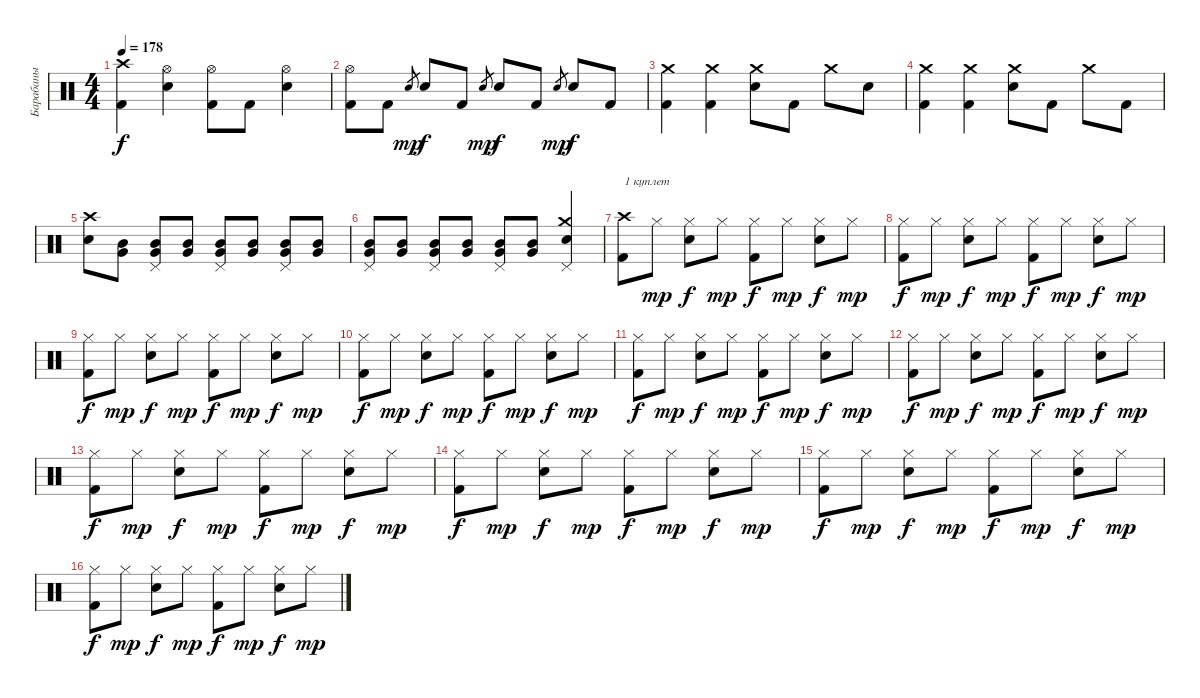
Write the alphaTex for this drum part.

\track ("Барабаны" "Барабаны") {instrument percussion}
\staff {score}
\articulation defaults
\ts (4 4)
\tempo 178
\clef neutral
\ks c
("Crash high (hit)" "Kick (hit) 2").4{dy f} ("Hi-Hat (open)" "Electric Snare (hit)").4 ("Hi-Hat (open)" "Kick (hit) 2").8 "Kick (hit) 2".8 ("Hi-Hat (open)" "Electric Snare (hit)").4 |
("Hi-Hat (open)" "Kick (hit) 2").8 "Kick (hit) 2".8 "Electric Snare (hit)".8{gr dy mp} "Electric Snare (hit)".8{dy f} "Kick (hit) 2".8 "Electric Snare (hit)".8{gr dy mp} "Electric Snare (hit)".8{dy f} "Kick (hit) 2".8 "Electric Snare (hit)".8{gr dy mp} "Electric Snare (hit)".8{dy f} "Kick (hit) 2".8 |
("Crash medium (hit)" "Kick (hit) 2").4 ("Crash medium (hit)" "Kick (hit) 2").4 ("Crash medium (hit)" "Electric Snare (hit)").8 "Kick (hit) 2".8 "Crash medium (hit)".8 "Electric Snare (hit)".8 |
("Crash medium (hit)" "Kick (hit) 2").4 ("Crash medium (hit)" "Kick (hit) 2").4 ("Crash medium (hit)" "Electric Snare (hit)").8 "Kick (hit) 2".8 "Crash medium (hit)".8 "Kick (hit) 2".8 |
("Crash high (hit)" "Electric Snare (hit)").8 ("Mid Tom (hit)" "Very Low Tom (hit)").8 ("Pedal Hi-Hat (hit)" "Mid Tom (hit)" "Very Low Tom (hit)").8 ("Mid Tom (hit)" "Very Low Tom (hit)").8 ("Pedal Hi-Hat (hit)" "Mid Tom (hit)" "Very Low Tom (hit)").8 ("Mid Tom (hit)" "Very Low Tom (hit)").8 ("Pedal Hi-Hat (hit)" "Mid Tom (hit)" "Very Low Tom (hit)").8 ("Mid Tom (hit)" "Very Low Tom (hit)").8 |
("Pedal Hi-Hat (hit)" "Mid Tom (hit)" "Very Low Tom (hit)").8 ("Mid Tom (hit)" "Very Low Tom (hit)").8 ("Pedal Hi-Hat (hit)" "Mid Tom (hit)" "Very Low Tom (hit)").8 ("Mid Tom (hit)" "Very Low Tom (hit)").8 ("Pedal Hi-Hat (hit)" "Mid Tom (hit)" "Very Low Tom (hit)").8 ("Mid Tom (hit)" "Very Low Tom (hit)").8 ("Crash medium (hit)" "Pedal Hi-Hat (hit)" "Electric Snare (hit)").4 |
("Crash high (hit)" "Kick (hit) 2").8{txt "1 куплет"} "Hi-Hat (closed)".8{dy mp} ("Hi-Hat (closed)" "Electric Snare (hit)").8{dy f} "Hi-Hat (closed)".8{dy mp} ("Hi-Hat (closed)" "Kick (hit) 2").8{dy f} "Hi-Hat (closed)".8{dy mp} ("Hi-Hat (closed)" "Electric Snare (hit)").8{dy f} "Hi-Hat (closed)".8{dy mp} |
("Hi-Hat (closed)" "Kick (hit) 2").8{dy f} "Hi-Hat (closed)".8{dy mp} ("Hi-Hat (closed)" "Electric Snare (hit)").8{dy f} "Hi-Hat (closed)".8{dy mp} ("Hi-Hat (closed)" "Kick (hit) 2").8{dy f} "Hi-Hat (closed)".8{dy mp} ("Hi-Hat (closed)" "Electric Snare (hit)").8{dy f} "Hi-Hat (closed)".8{dy mp} |
("Hi-Hat (closed)" "Kick (hit) 2").8{dy f} "Hi-Hat (closed)".8{dy mp} ("Hi-Hat (closed)" "Electric Snare (hit)").8{dy f} "Hi-Hat (closed)".8{dy mp} ("Hi-Hat (closed)" "Kick (hit) 2").8{dy f} "Hi-Hat (closed)".8{dy mp} ("Hi-Hat (closed)" "Electric Snare (hit)").8{dy f} "Hi-Hat (closed)".8{dy mp} |
("Hi-Hat (closed)" "Kick (hit) 2").8{dy f} "Hi-Hat (closed)".8{dy mp} ("Hi-Hat (closed)" "Electric Snare (hit)").8{dy f} "Hi-Hat (closed)".8{dy mp} ("Hi-Hat (closed)" "Kick (hit) 2").8{dy f} "Hi-Hat (closed)".8{dy mp} ("Hi-Hat (closed)" "Electric Snare (hit)").8{dy f} "Hi-Hat (closed)".8{dy mp} |
("Hi-Hat (closed)" "Kick (hit) 2").8{dy f} "Hi-Hat (closed)".8{dy mp} ("Hi-Hat (closed)" "Electric Snare (hit)").8{dy f} "Hi-Hat (closed)".8{dy mp} ("Hi-Hat (closed)" "Kick (hit) 2").8{dy f} "Hi-Hat (closed)".8{dy mp} ("Hi-Hat (closed)" "Electric Snare (hit)").8{dy f} "Hi-Hat (closed)".8{dy mp} |
("Hi-Hat (closed)" "Kick (hit) 2").8{dy f} "Hi-Hat (closed)".8{dy mp} ("Hi-Hat (closed)" "Electric Snare (hit)").8{dy f} "Hi-Hat (closed)".8{dy mp} ("Hi-Hat (closed)" "Kick (hit) 2").8{dy f} "Hi-Hat (closed)".8{dy mp} ("Hi-Hat (closed)" "Electric Snare (hit)").8{dy f} "Hi-Hat (closed)".8{dy mp} |
("Hi-Hat (closed)" "Kick (hit) 2").8{dy f} "Hi-Hat (closed)".8{dy mp} ("Hi-Hat (closed)" "Electric Snare (hit)").8{dy f} "Hi-Hat (closed)".8{dy mp} ("Hi-Hat (closed)" "Kick (hit) 2").8{dy f} "Hi-Hat (closed)".8{dy mp} ("Hi-Hat (closed)" "Electric Snare (hit)").8{dy f} "Hi-Hat (closed)".8{dy mp} |
("Hi-Hat (closed)" "Kick (hit) 2").8{dy f} "Hi-Hat (closed)".8{dy mp} ("Hi-Hat (closed)" "Electric Snare (hit)").8{dy f} "Hi-Hat (closed)".8{dy mp} ("Hi-Hat (closed)" "Kick (hit) 2").8{dy f} "Hi-Hat (closed)".8{dy mp} ("Hi-Hat (closed)" "Electric Snare (hit)").8{dy f} "Hi-Hat (closed)".8{dy mp} |
("Hi-Hat (closed)" "Kick (hit) 2").8{dy f} "Hi-Hat (closed)".8{dy mp} ("Hi-Hat (closed)" "Electric Snare (hit)").8{dy f} "Hi-Hat (closed)".8{dy mp} ("Hi-Hat (closed)" "Kick (hit) 2").8{dy f} "Hi-Hat (closed)".8{dy mp} ("Hi-Hat (closed)" "Electric Snare (hit)").8{dy f} "Hi-Hat (closed)".8{dy mp} |
("Hi-Hat (closed)" "Kick (hit) 2").8{dy f} "Hi-Hat (closed)".8{dy mp} ("Hi-Hat (closed)" "Electric Snare (hit)").8{dy f} "Hi-Hat (closed)".8{dy mp} ("Hi-Hat (closed)" "Kick (hit) 2").8{dy f} "Hi-Hat (closed)".8{dy mp} ("Hi-Hat (closed)" "Electric Snare (hit)").8{dy f} "Hi-Hat (closed)".8{dy mp}
